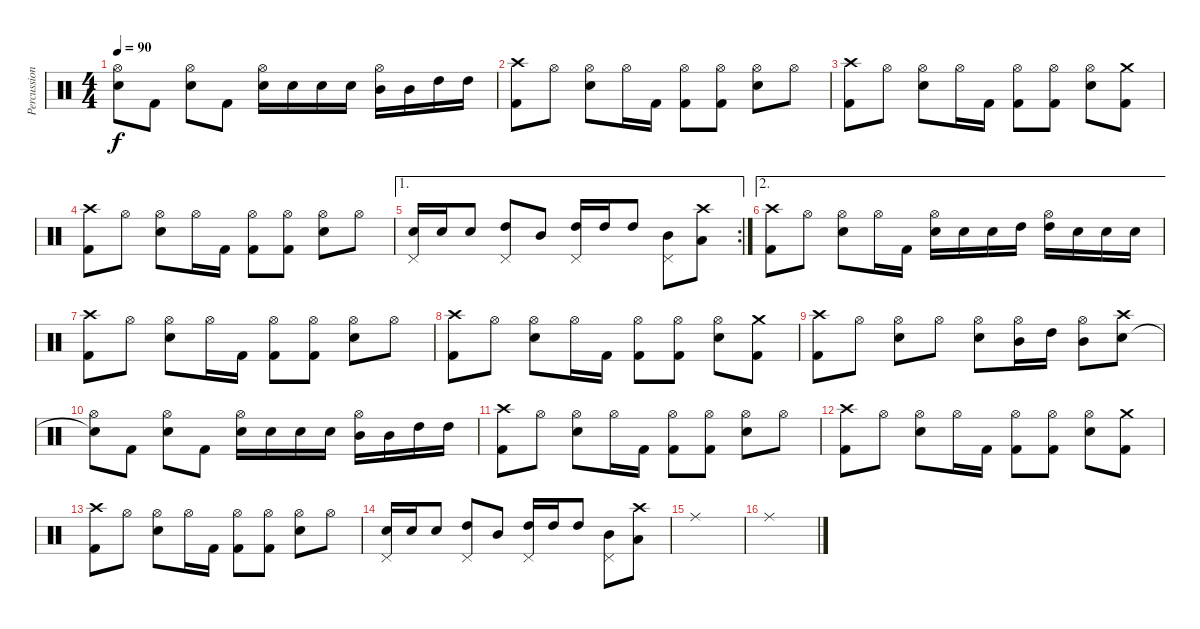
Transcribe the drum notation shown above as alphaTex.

\track ("Percussion" "Percussion") {instrument percussion}
\staff {score}
\articulation defaults
\ts (4 4)
\tempo 90
\clef neutral
\ks c
("Hi-Hat (open)" "Snare (hit)"{t}).8{dy f} "Kick (hit) 2".8 ("Hi-Hat (open)" "Snare (hit) 2").8 "Kick (hit) 2".8 ("Snare (hit) 2" "Hi-Hat (open)").16 "Snare (hit) 2".16 "Snare (hit) 2".16 "Snare (hit) 2".16 ("Mid Tom (hit)" "Hi-Hat (open)").16 "Mid Tom (hit)".16 "High Tom (hit)".16 "High Tom (hit)".16 |
("Crash high (hit)" "Kick (hit) 2").8 "Hi-Hat (open)".8 ("Hi-Hat (open)" "Snare (hit) 2").8 "Hi-Hat (open)".16 "Kick (hit) 2".16 ("Hi-Hat (open)" "Kick (hit) 2").8 ("Hi-Hat (open)" "Kick (hit) 2").8 ("Hi-Hat (open)" "Snare (hit) 2").8 "Hi-Hat (open)".8 |
("Crash high (hit)" "Kick (hit) 2").8 "Hi-Hat (open)".8 ("Hi-Hat (open)" "Snare (hit) 2").8 "Hi-Hat (open)".16 "Kick (hit) 2".16 ("Hi-Hat (open)" "Kick (hit) 2").8 ("Hi-Hat (open)" "Kick (hit) 2").8 ("Hi-Hat (open)" "Snare (hit) 2").8 ("Crash medium (hit)" "Kick (hit) 2").8 |
("Crash high (hit)" "Kick (hit) 2").8 "Hi-Hat (open)".8 ("Hi-Hat (open)" "Snare (hit) 2").8 "Hi-Hat (open)".16 "Kick (hit) 2".16 ("Hi-Hat (open)" "Kick (hit) 2").8 ("Hi-Hat (open)" "Kick (hit) 2").8 ("Hi-Hat (open)" "Snare (hit) 2").8 "Hi-Hat (open)".8 |
\ae 1
\rc 2
("Snare (hit) 2" "Pedal Hi-Hat (hit)").16 "Snare (hit) 2".16 "Snare (hit) 2".8 ("High Tom (hit)" "Pedal Hi-Hat (hit)").8 "Mid Tom (hit)".8 ("High Tom (hit)" "Pedal Hi-Hat (hit)").16 "High Tom (hit)".16 "High Tom (hit)".8 ("Mid Tom (hit)" "Pedal Hi-Hat (hit)").8 ("Crash high (hit)" "Low Tom (hit)").8 |
\ae 2
("Crash high (hit)" "Kick (hit) 2").8 "Hi-Hat (open)".8 ("Hi-Hat (open)" "Snare (hit) 2").8 "Hi-Hat (open)".16 "Kick (hit) 2".16 ("Snare (hit) 2" "Hi-Hat (open)").16 "Snare (hit) 2".16 "Snare (hit) 2".16 "High Tom (hit)".16 ("High Tom (hit)" "Hi-Hat (open)").16 "Snare (hit) 2".16 "Snare (hit) 2".16 "Snare (hit) 2".16 |
("Crash high (hit)" "Kick (hit) 2").8 "Hi-Hat (open)".8 ("Hi-Hat (open)" "Snare (hit) 2").8 "Hi-Hat (open)".16 "Kick (hit) 2".16 ("Hi-Hat (open)" "Kick (hit) 2").8 ("Hi-Hat (open)" "Kick (hit) 2").8 ("Hi-Hat (open)" "Snare (hit) 2").8 "Hi-Hat (open)".8 |
("Crash high (hit)" "Kick (hit) 2").8 "Hi-Hat (open)".8 ("Hi-Hat (open)" "Snare (hit) 2").8 "Hi-Hat (open)".16 "Kick (hit) 2".16 ("Hi-Hat (open)" "Kick (hit) 2").8 ("Hi-Hat (open)" "Kick (hit) 2").8 ("Hi-Hat (open)" "Snare (hit) 2").8 ("Crash medium (hit)" "Kick (hit) 2").8 |
("Crash high (hit)" "Kick (hit) 2").8 "Hi-Hat (open)".8 ("Hi-Hat (open)" "Snare (hit) 2").8 "Hi-Hat (open)".8 ("Hi-Hat (open)" "Snare (hit) 2").8 ("Hi-Hat (open)" "Mid Tom (hit)").16 "High Tom (hit)".16 ("Hi-Hat (open)" "Mid Tom (hit)").8 ("Crash high (hit)" "Snare (hit) 2").8 |
("Hi-Hat (open)" "Snare (hit)"{t}).8 "Kick (hit) 2".8 ("Hi-Hat (open)" "Snare (hit) 2").8 "Kick (hit) 2".8 ("Snare (hit) 2" "Hi-Hat (open)").16 "Snare (hit) 2".16 "Snare (hit) 2".16 "Snare (hit) 2".16 ("Mid Tom (hit)" "Hi-Hat (open)").16 "Mid Tom (hit)".16 "High Tom (hit)".16 "High Tom (hit)".16 |
("Crash high (hit)" "Kick (hit) 2").8 "Hi-Hat (open)".8 ("Hi-Hat (open)" "Snare (hit) 2").8 "Hi-Hat (open)".16 "Kick (hit) 2".16 ("Hi-Hat (open)" "Kick (hit) 2").8 ("Hi-Hat (open)" "Kick (hit) 2").8 ("Hi-Hat (open)" "Snare (hit) 2").8 "Hi-Hat (open)".8 |
("Crash high (hit)" "Kick (hit) 2").8 "Hi-Hat (open)".8 ("Hi-Hat (open)" "Snare (hit) 2").8 "Hi-Hat (open)".16 "Kick (hit) 2".16 ("Hi-Hat (open)" "Kick (hit) 2").8 ("Hi-Hat (open)" "Kick (hit) 2").8 ("Hi-Hat (open)" "Snare (hit) 2").8 ("Crash medium (hit)" "Kick (hit) 2").8 |
("Crash high (hit)" "Kick (hit) 2").8 "Hi-Hat (open)".8 ("Hi-Hat (open)" "Snare (hit) 2").8 "Hi-Hat (open)".16 "Kick (hit) 2".16 ("Hi-Hat (open)" "Kick (hit) 2").8 ("Hi-Hat (open)" "Kick (hit) 2").8 ("Hi-Hat (open)" "Snare (hit) 2").8 "Hi-Hat (open)".8 |
("Snare (hit) 2" "Pedal Hi-Hat (hit)").16 "Snare (hit) 2".16 "Snare (hit) 2".8 ("High Tom (hit)" "Pedal Hi-Hat (hit)").8 "Mid Tom (hit)".8 ("High Tom (hit)" "Pedal Hi-Hat (hit)").16 "High Tom (hit)".16 "High Tom (hit)".8 ("Mid Tom (hit)" "Pedal Hi-Hat (hit)").8 ("Crash high (hit)" "Low Tom (hit)").8 |
"Ride (middle)".1 |
"Ride (middle)".1
